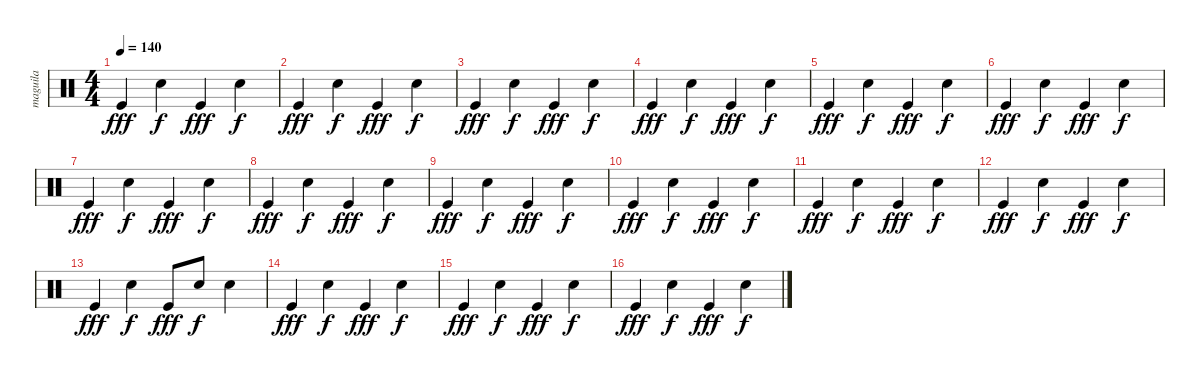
\track ("maguila" "maguila") {instrument percussion}
\staff {score}
\articulation defaults
\ts (4 4)
\tempo 140
\clef neutral
\ks c "Kick (hit)".4{dy fff} "Snare (hit) 2".4{dy f} "Kick (hit)".4{dy fff} "Snare (hit) 2".4{dy f}
|
"Kick (hit)".4{dy fff} "Snare (hit) 2".4{dy f} "Kick (hit)".4{dy fff} "Snare (hit) 2".4{dy f} |
"Kick (hit)".4{dy fff} "Snare (hit) 2".4{dy f} "Kick (hit)".4{dy fff} "Snare (hit) 2".4{dy f} |
"Kick (hit)".4{dy fff} "Snare (hit) 2".4{dy f} "Kick (hit)".4{dy fff} "Snare (hit) 2".4{dy f} |
"Kick (hit)".4{dy fff} "Snare (hit) 2".4{dy f} "Kick (hit)".4{dy fff} "Snare (hit) 2".4{dy f} |
"Kick (hit)".4{dy fff} "Snare (hit) 2".4{dy f} "Kick (hit)".4{dy fff} "Snare (hit) 2".4{dy f} |
"Kick (hit)".4{dy fff} "Snare (hit) 2".4{dy f} "Kick (hit)".4{dy fff} "Snare (hit) 2".4{dy f} |
"Kick (hit)".4{dy fff} "Snare (hit) 2".4{dy f} "Kick (hit)".4{dy fff} "Snare (hit) 2".4{dy f} |
"Kick (hit)".4{dy fff} "Snare (hit) 2".4{dy f} "Kick (hit)".4{dy fff} "Snare (hit) 2".4{dy f} |
"Kick (hit)".4{dy fff} "Snare (hit) 2".4{dy f} "Kick (hit)".4{dy fff} "Snare (hit) 2".4{dy f} |
"Kick (hit)".4{dy fff} "Snare (hit) 2".4{dy f} "Kick (hit)".4{dy fff} "Snare (hit) 2".4{dy f} |
"Kick (hit)".4{dy fff} "Snare (hit) 2".4{dy f} "Kick (hit)".4{dy fff} "Snare (hit) 2".4{dy f} |
"Kick (hit)".4{dy fff} "Snare (hit) 2".4{dy f} "Kick (hit)".8{dy fff} "Snare (hit) 2".8{dy f} "Snare (hit) 2".4 |
"Kick (hit)".4{dy fff} "Snare (hit) 2".4{dy f} "Kick (hit)".4{dy fff} "Snare (hit) 2".4{dy f} |
"Kick (hit)".4{dy fff} "Snare (hit) 2".4{dy f} "Kick (hit)".4{dy fff} "Snare (hit) 2".4{dy f} |
"Kick (hit)".4{dy fff} "Snare (hit) 2".4{dy f} "Kick (hit)".4{dy fff} "Snare (hit) 2".4{dy f}
